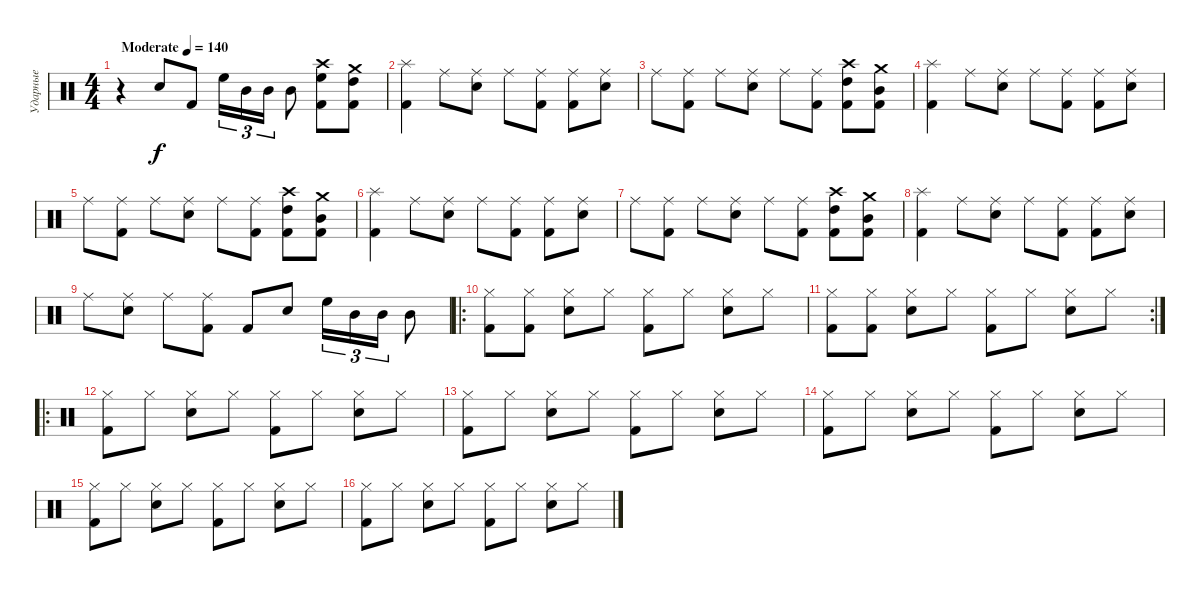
\track ("Ударные" "Ударные") {instrument percussion}
\staff {score}
\articulation defaults
\ts (4 4)
\tempo (140 "Moderate")
\clef neutral
\ks c
r.4{dy f} "Snare (hit) 2".8 "Kick (hit) 2".8 "High Floor Tom (hit)".16{tu (3 2)} "Mid Tom (hit)".16{tu (3 2)} "Mid Tom (hit)".16{tu (3 2)} "Mid Tom (hit)".8 ("Kick (hit) 2" "Crash high (hit)" "High Floor Tom (hit)").8 ("Kick (hit) 2" "Crash medium (hit)" "High Tom (hit)").8 |
("Kick (hit) 2" "Splash (hit)").4 "Ride (middle)".8 ("Ride (middle)" "Snare (hit) 2").8 "Ride (middle)".8 ("Ride (middle)" "Kick (hit) 2").8 ("Ride (middle)" "Kick (hit) 2").8 ("Ride (middle)" "Snare (hit) 2").8 |
"Ride (middle)".8 ("Ride (middle)" "Kick (hit) 2").8 "Ride (middle)".8 ("Ride (middle)" "Snare (hit) 2").8 "Ride (middle)".8 ("Ride (middle)" "Kick (hit) 2").8 ("Kick (hit) 2" "Crash high (hit)" "High Tom (hit)").8 ("Kick (hit) 2" "Crash medium (hit)" "Mid Tom (hit)").8 |
("Kick (hit) 2" "Splash (hit)").4 "Ride (middle)".8 ("Ride (middle)" "Snare (hit) 2").8 "Ride (middle)".8 ("Ride (middle)" "Kick (hit) 2").8 ("Ride (middle)" "Kick (hit) 2").8 ("Ride (middle)" "Snare (hit) 2").8 |
"Ride (middle)".8 ("Ride (middle)" "Kick (hit) 2").8 "Ride (middle)".8 ("Ride (middle)" "Snare (hit) 2").8 "Ride (middle)".8 ("Ride (middle)" "Kick (hit) 2").8 ("Kick (hit) 2" "Crash high (hit)" "High Tom (hit)").8 ("Kick (hit) 2" "Crash medium (hit)" "Mid Tom (hit)").8 |
("Kick (hit) 2" "Splash (hit)").4 "Ride (middle)".8 ("Ride (middle)" "Snare (hit) 2").8 "Ride (middle)".8 ("Ride (middle)" "Kick (hit) 2").8 ("Ride (middle)" "Kick (hit) 2").8 ("Ride (middle)" "Snare (hit) 2").8 |
"Ride (middle)".8 ("Ride (middle)" "Kick (hit) 2").8 "Ride (middle)".8 ("Ride (middle)" "Snare (hit) 2").8 "Ride (middle)".8 ("Ride (middle)" "Kick (hit) 2").8 ("Kick (hit) 2" "Crash high (hit)" "High Tom (hit)").8 ("Kick (hit) 2" "Crash medium (hit)" "Mid Tom (hit)").8 |
("Kick (hit) 2" "Splash (hit)").4 "Ride (middle)".8 ("Ride (middle)" "Snare (hit) 2").8 "Ride (middle)".8 ("Ride (middle)" "Kick (hit) 2").8 ("Ride (middle)" "Kick (hit) 2").8 ("Ride (middle)" "Snare (hit) 2").8 |
"Ride (middle)".8 ("Ride (middle)" "Snare (hit) 2").8 "Ride (middle)".8 ("Ride (middle)" "Kick (hit) 2").8 "Kick (hit) 2".8 "Snare (hit) 2".8 "High Floor Tom (hit)".16{tu (3 2)} "Mid Tom (hit)".16{tu (3 2)} "Mid Tom (hit)".16{tu (3 2)} "Mid Tom (hit)".8 |
\ro
("Hi-Hat (closed)" "Kick (hit) 2").8 ("Hi-Hat (closed)" "Kick (hit) 2").8 ("Hi-Hat (closed)" "Snare (hit) 2").8 "Hi-Hat (closed)".8 ("Hi-Hat (closed)" "Kick (hit) 2").8 "Hi-Hat (closed)".8 ("Hi-Hat (closed)" "Snare (hit) 2").8 "Hi-Hat (closed)".8 |
\rc 2
("Hi-Hat (closed)" "Kick (hit) 2").8 ("Hi-Hat (closed)" "Kick (hit) 2").8 ("Hi-Hat (closed)" "Snare (hit) 2").8 "Hi-Hat (closed)".8 ("Hi-Hat (closed)" "Kick (hit) 2").8 "Hi-Hat (closed)".8 ("Hi-Hat (closed)" "Snare (hit) 2").8 "Hi-Hat (closed)".8 |
\ro
("Hi-Hat (closed)" "Kick (hit) 2").8 "Hi-Hat (closed)".8 ("Hi-Hat (closed)" "Snare (hit) 2").8 "Hi-Hat (closed)".8 ("Hi-Hat (closed)" "Kick (hit) 2").8 "Hi-Hat (closed)".8 ("Hi-Hat (closed)" "Snare (hit) 2").8 "Hi-Hat (closed)".8 |
("Hi-Hat (closed)" "Kick (hit) 2").8 "Hi-Hat (closed)".8 ("Hi-Hat (closed)" "Snare (hit) 2").8 "Hi-Hat (closed)".8 ("Hi-Hat (closed)" "Kick (hit) 2").8 "Hi-Hat (closed)".8 ("Hi-Hat (closed)" "Snare (hit) 2").8 "Hi-Hat (closed)".8 |
("Hi-Hat (closed)" "Kick (hit) 2").8 "Hi-Hat (closed)".8 ("Hi-Hat (closed)" "Snare (hit) 2").8 "Hi-Hat (closed)".8 ("Hi-Hat (closed)" "Kick (hit) 2").8 "Hi-Hat (closed)".8 ("Hi-Hat (closed)" "Snare (hit) 2").8 "Hi-Hat (closed)".8 |
("Hi-Hat (closed)" "Kick (hit) 2").8 "Hi-Hat (closed)".8 ("Hi-Hat (closed)" "Snare (hit) 2").8 "Hi-Hat (closed)".8 ("Hi-Hat (closed)" "Kick (hit) 2").8 "Hi-Hat (closed)".8 ("Hi-Hat (closed)" "Snare (hit) 2").8 "Hi-Hat (closed)".8 |
("Hi-Hat (closed)" "Kick (hit) 2").8 "Hi-Hat (closed)".8 ("Hi-Hat (closed)" "Snare (hit) 2").8 "Hi-Hat (closed)".8 ("Hi-Hat (closed)" "Kick (hit) 2").8 "Hi-Hat (closed)".8 ("Hi-Hat (closed)" "Snare (hit) 2").8 "Hi-Hat (closed)".8
